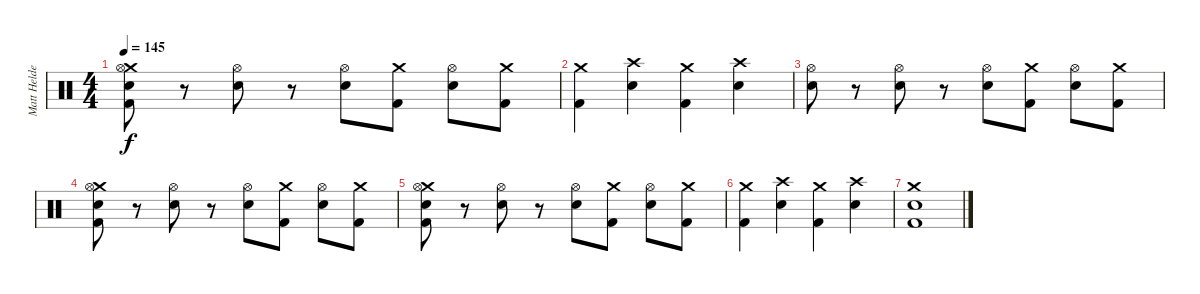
\track ("Matt Helders" "Matt Helde") {instrument percussion}
\staff {score}
\articulation defaults
\ts (4 4)
\tempo 145
\clef neutral
\ks c
("Crash medium (hit)" "Hi-Hat (open)" "Snare (hit) 2" "Kick (hit) 2").8{dy f} r.8 ("Hi-Hat (open)" "Snare (hit) 2").8 r.8 ("Hi-Hat (open)" "Snare (hit) 2").8 ("Crash medium (hit)" "Kick (hit) 2").8 ("Hi-Hat (open)" "Snare (hit) 2").8 ("Crash medium (hit)" "Kick (hit) 2").8 |
("Crash medium (hit)" "Kick (hit) 2").4 ("Crash high (hit)" "Snare (hit) 2").4 ("Crash medium (hit)" "Kick (hit) 2").4 ("Crash high (hit)" "Snare (hit) 2").4 |
("Hi-Hat (open)" "Snare (hit) 2").8 r.8 ("Hi-Hat (open)" "Snare (hit) 2").8 r.8 ("Hi-Hat (open)" "Snare (hit) 2").8 ("Crash medium (hit)" "Kick (hit) 2").8 ("Hi-Hat (open)" "Snare (hit) 2").8 ("Crash medium (hit)" "Kick (hit) 2").8 |
("Crash medium (hit)" "Hi-Hat (open)" "Snare (hit) 2" "Kick (hit) 2").8 r.8 ("Hi-Hat (open)" "Snare (hit) 2").8 r.8 ("Hi-Hat (open)" "Snare (hit) 2").8 ("Crash medium (hit)" "Kick (hit) 2").8 ("Hi-Hat (open)" "Snare (hit) 2").8 ("Crash medium (hit)" "Kick (hit) 2").8 |
("Crash medium (hit)" "Hi-Hat (open)" "Snare (hit) 2" "Kick (hit) 2").8 r.8 ("Hi-Hat (open)" "Snare (hit) 2").8 r.8 ("Hi-Hat (open)" "Snare (hit) 2").8 ("Crash medium (hit)" "Kick (hit) 2").8 ("Hi-Hat (open)" "Snare (hit) 2").8 ("Crash medium (hit)" "Kick (hit) 2").8 |
("Crash medium (hit)" "Kick (hit) 2").4 ("Crash high (hit)" "Snare (hit) 2").4 ("Crash medium (hit)" "Kick (hit) 2").4 ("Crash high (hit)" "Snare (hit) 2").4 |
("Crash medium (hit)" "Snare (hit) 2" "Kick (hit) 2").1
